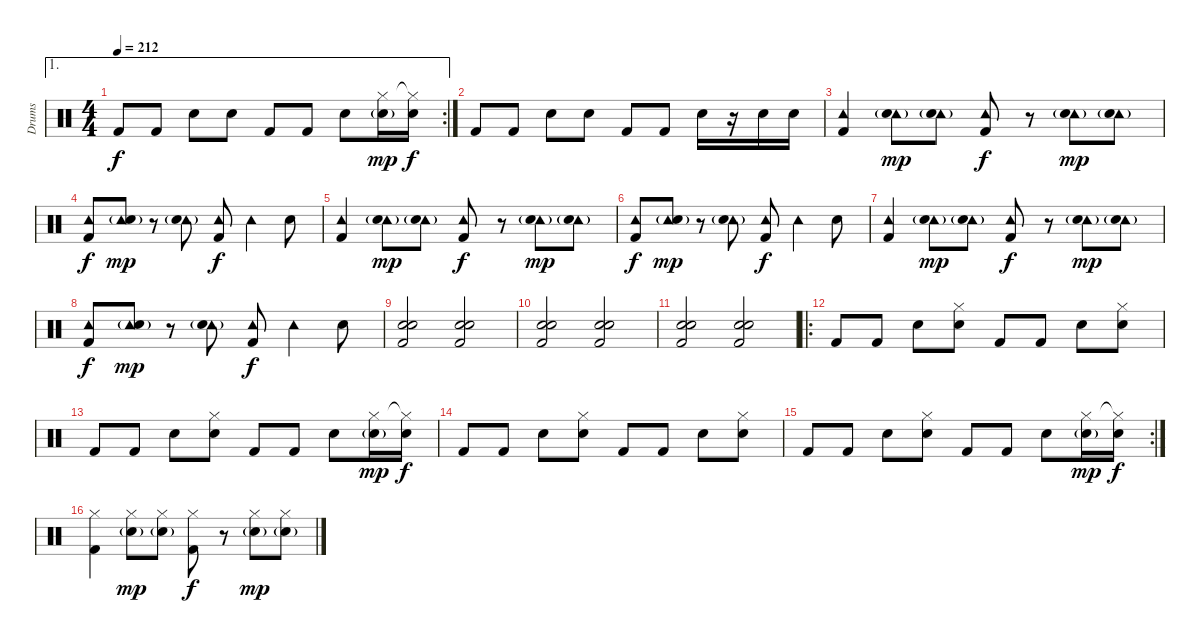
\track ("Drums" "Drums") {instrument percussion}
\staff {score}
\articulation defaults
\ae 1
\rc 2
\ts (4 4)
\tempo 212
\clef neutral
\ks c "Kick (hit) 2".8{dy f} "Kick (hit) 2".8 "Electric Snare (hit)".8 "Electric Snare (hit)".8 "Kick (hit) 2".8 "Kick (hit) 2".8 "Electric Snare (hit)".8
("Hi-Hat (closed)" "Electric Snare (hit)"{g}).16{dy mp} ("Hi-Hat (closed)"{t} "Electric Snare (hit)").16{dy f} |
"Kick (hit) 2".8 "Kick (hit) 2".8 "Electric Snare (hit)".8 "Electric Snare (hit)".8 "Kick (hit) 2".8 "Kick (hit) 2".8 "Electric Snare (hit)".16 r.16 "Electric Snare (hit)".16 "Electric Snare (hit)".16 |
("Tambourine (hit)" "Kick (hit) 2").4 ("Tambourine (hit)" "Electric Snare (hit)"{g}).8{dy mp} ("Tambourine (hit)" "Electric Snare (hit)"{g}).8 ("Tambourine (hit)" "Kick (hit) 2").8{dy f} r.8 ("Tambourine (hit)" "Electric Snare (hit)"{g}).8{dy mp} ("Tambourine (hit)" "Electric Snare (hit)"{g}).8 |
("Tambourine (hit)" "Kick (hit) 2").8{dy f} ("Tambourine (hit)" "Electric Snare (hit)"{g}).8{dy mp} r.8 ("Tambourine (hit)" "Electric Snare (hit)"{g}).8 ("Tambourine (hit)" "Kick (hit) 2").8{dy f} "Tambourine (hit)".4 "Electric Snare (hit)".8 |
("Tambourine (hit)" "Kick (hit) 2").4 ("Tambourine (hit)" "Electric Snare (hit)"{g}).8{dy mp} ("Tambourine (hit)" "Electric Snare (hit)"{g}).8 ("Tambourine (hit)" "Kick (hit) 2").8{dy f} r.8 ("Tambourine (hit)" "Electric Snare (hit)"{g}).8{dy mp} ("Tambourine (hit)" "Electric Snare (hit)"{g}).8 |
("Tambourine (hit)" "Kick (hit) 2").8{dy f} ("Tambourine (hit)" "Electric Snare (hit)"{g}).8{dy mp} r.8 ("Tambourine (hit)" "Electric Snare (hit)"{g}).8 ("Tambourine (hit)" "Kick (hit) 2").8{dy f} "Tambourine (hit)".4 "Electric Snare (hit)".8 |
("Tambourine (hit)" "Kick (hit) 2").4 ("Tambourine (hit)" "Electric Snare (hit)"{g}).8{dy mp} ("Tambourine (hit)" "Electric Snare (hit)"{g}).8 ("Tambourine (hit)" "Kick (hit) 2").8{dy f} r.8 ("Tambourine (hit)" "Electric Snare (hit)"{g}).8{dy mp} ("Tambourine (hit)" "Electric Snare (hit)"{g}).8 |
("Tambourine (hit)" "Kick (hit) 2").8{dy f} ("Tambourine (hit)" "Electric Snare (hit)"{g}).8{dy mp} r.8 ("Tambourine (hit)" "Electric Snare (hit)"{g}).8 ("Tambourine (hit)" "Kick (hit) 2").8{dy f} "Tambourine (hit)".4 "Electric Snare (hit)".8 |
("Electric Snare (hit)" "Electric Snare (hit)" "Kick (hit) 2").2 ("Electric Snare (hit)" "Electric Snare (hit)" "Kick (hit) 2").2 |
("Electric Snare (hit)" "Electric Snare (hit)" "Kick (hit) 2").2 ("Electric Snare (hit)" "Electric Snare (hit)" "Kick (hit) 2").2 |
("Electric Snare (hit)" "Electric Snare (hit)" "Kick (hit) 2").2 ("Electric Snare (hit)" "Electric Snare (hit)" "Kick (hit) 2").2 |
\ro "Kick (hit) 2".8 "Kick (hit) 2".8 "Electric Snare (hit)".8
("Hi-Hat (closed)" "Electric Snare (hit)").8 "Kick (hit) 2".8 "Kick (hit) 2".8 "Electric Snare (hit)".8 ("Hi-Hat (closed)" "Electric Snare (hit)").8 |
"Kick (hit) 2".8 "Kick (hit) 2".8 "Electric Snare (hit)".8 ("Hi-Hat (closed)" "Electric Snare (hit)").8 "Kick (hit) 2".8 "Kick (hit) 2".8 "Electric Snare (hit)".8 ("Hi-Hat (closed)" "Electric Snare (hit)"{g}).16{dy mp} ("Hi-Hat (closed)"{t} "Electric Snare (hit)").16{dy f} |
"Kick (hit) 2".8 "Kick (hit) 2".8 "Electric Snare (hit)".8 ("Hi-Hat (closed)" "Electric Snare (hit)").8 "Kick (hit) 2".8 "Kick (hit) 2".8 "Electric Snare (hit)".8 ("Hi-Hat (closed)" "Electric Snare (hit)").8 |
\rc 2 "Kick (hit) 2".8 "Kick (hit) 2".8 "Electric Snare (hit)".8
("Hi-Hat (closed)" "Electric Snare (hit)").8 "Kick (hit) 2".8 "Kick (hit) 2".8 "Electric Snare (hit)".8 ("Hi-Hat (closed)" "Electric Snare (hit)"{g}).16{dy mp} ("Hi-Hat (closed)"{t} "Electric Snare (hit)").16{dy f} |
("Hi-Hat (closed)" "Kick (hit) 2").4 ("Hi-Hat (closed)" "Electric Snare (hit)"{g}).8{dy mp} ("Hi-Hat (closed)" "Electric Snare (hit)"{g}).8 ("Hi-Hat (closed)" "Kick (hit) 2").8{dy f} r.8 ("Hi-Hat (closed)" "Electric Snare (hit)"{g}).8{dy mp} ("Hi-Hat (closed)" "Electric Snare (hit)"{g}).8
